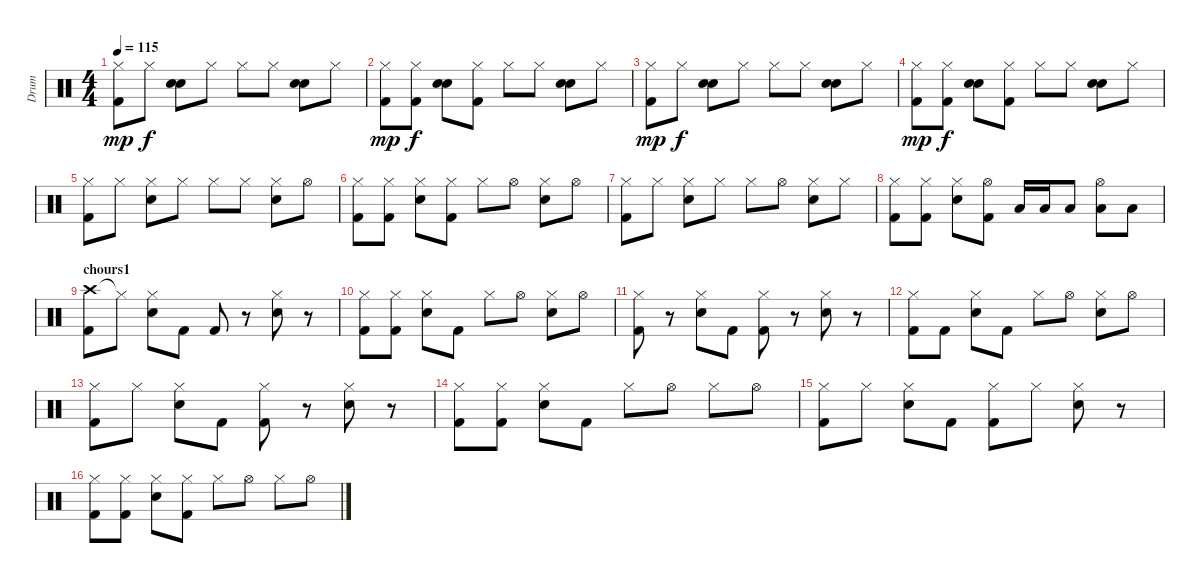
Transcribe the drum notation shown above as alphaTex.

\track ("Drum" "Drum") {instrument percussion}
\staff {score}
\articulation defaults
\ts (4 4)
\tempo 115
\clef neutral
\ks c
("Hi-Hat (closed)" "Kick (hit) 2").8{dy mp} "Hi-Hat (closed)".8{dy f} ("Electric Snare (hit)" "Electric Snare (hit)").8 "Hi-Hat (closed)".8 "Hi-Hat (closed)".8 "Hi-Hat (closed)".8 ("Electric Snare (hit)" "Electric Snare (hit)").8 "Hi-Hat (closed)".8 |
("Hi-Hat (closed)" "Kick (hit) 2").8{dy mp} ("Hi-Hat (closed)" "Kick (hit) 2").8{dy f} ("Electric Snare (hit)" "Electric Snare (hit)").8 ("Hi-Hat (closed)" "Kick (hit) 2").8 "Hi-Hat (closed)".8 "Hi-Hat (closed)".8 ("Electric Snare (hit)" "Electric Snare (hit)").8 "Hi-Hat (closed)".8 |
("Hi-Hat (closed)" "Kick (hit) 2").8{dy mp} "Hi-Hat (closed)".8{dy f} ("Electric Snare (hit)" "Electric Snare (hit)").8 "Hi-Hat (closed)".8 "Hi-Hat (closed)".8 "Hi-Hat (closed)".8 ("Electric Snare (hit)" "Electric Snare (hit)").8 "Hi-Hat (closed)".8 |
("Hi-Hat (closed)" "Kick (hit) 2").8{dy mp} ("Hi-Hat (closed)" "Kick (hit) 2").8{dy f} ("Electric Snare (hit)" "Electric Snare (hit)").8 ("Hi-Hat (closed)" "Kick (hit) 2").8 "Hi-Hat (closed)".8 "Hi-Hat (closed)".8 ("Electric Snare (hit)" "Electric Snare (hit)").8 "Hi-Hat (closed)".8 |
("Hi-Hat (closed)" "Kick (hit) 2").8 "Hi-Hat (closed)".8 ("Hi-Hat (closed)" "Electric Snare (hit)").8 "Hi-Hat (closed)".8 "Hi-Hat (closed)".8 "Hi-Hat (closed)".8 ("Hi-Hat (closed)" "Electric Snare (hit)").8 "Hi-Hat (open)".8 |
("Hi-Hat (closed)" "Kick (hit) 2").8 ("Hi-Hat (closed)" "Kick (hit) 2").8 ("Hi-Hat (closed)" "Electric Snare (hit)").8 ("Hi-Hat (closed)" "Kick (hit) 2").8 "Hi-Hat (closed)".8 "Hi-Hat (open)".8 ("Hi-Hat (closed)" "Electric Snare (hit)").8 "Hi-Hat (open)".8 |
("Hi-Hat (closed)" "Kick (hit) 2").8 "Hi-Hat (closed)".8 ("Hi-Hat (closed)" "Electric Snare (hit)").8 "Hi-Hat (closed)".8 "Hi-Hat (closed)".8 "Hi-Hat (open)".8 ("Hi-Hat (closed)" "Electric Snare (hit)").8 "Hi-Hat (closed)".8 |
("Hi-Hat (closed)" "Kick (hit) 2").8 ("Hi-Hat (closed)" "Kick (hit) 2").8 ("Hi-Hat (closed)" "Electric Snare (hit)").8 ("Hi-Hat (open)" "Kick (hit) 2").8 "Low Tom (hit)".16 "Low Tom (hit)".16 "Low Tom (hit)".8 ("Hi-Hat (open)" "Low Tom (hit)").8 "Low Tom (hit)".8 |
\section ("" "chours1")
("Crash high (hit)" "Kick (hit) 2").8 "Hi-Hat (closed)"{t}.8 ("Hi-Hat (closed)" "Electric Snare (hit)").8 "Kick (hit) 2".8 "Kick (hit) 2".8 r.8 ("Hi-Hat (closed)" "Electric Snare (hit)").8 r.8 |
("Hi-Hat (closed)" "Kick (hit) 2").8 ("Hi-Hat (closed)" "Kick (hit) 2").8 ("Hi-Hat (closed)" "Electric Snare (hit)").8 "Kick (hit) 2".8 "Hi-Hat (closed)".8 "Hi-Hat (open)".8 ("Hi-Hat (closed)" "Electric Snare (hit)").8 "Hi-Hat (open)".8 |
("Hi-Hat (closed)" "Kick (hit) 2").8 r.8 ("Hi-Hat (closed)" "Electric Snare (hit)").8 "Kick (hit) 2".8 ("Hi-Hat (closed)" "Kick (hit) 2").8 r.8 ("Hi-Hat (closed)" "Electric Snare (hit)").8 r.8 |
("Hi-Hat (closed)" "Kick (hit) 2").8 "Kick (hit) 2".8 ("Hi-Hat (closed)" "Electric Snare (hit)").8 "Kick (hit) 2".8 "Hi-Hat (closed)".8 "Hi-Hat (open)".8 ("Hi-Hat (closed)" "Electric Snare (hit)").8 "Hi-Hat (open)".8 |
("Hi-Hat (closed)" "Kick (hit) 2").8 "Hi-Hat (closed)".8 ("Hi-Hat (closed)" "Electric Snare (hit)").8 "Kick (hit) 2".8 ("Hi-Hat (closed)" "Kick (hit) 2").8 r.8 ("Hi-Hat (closed)" "Electric Snare (hit)").8 r.8 |
("Hi-Hat (closed)" "Kick (hit) 2").8 ("Hi-Hat (closed)" "Kick (hit) 2").8 ("Hi-Hat (closed)" "Electric Snare (hit)").8 "Kick (hit) 2".8 "Hi-Hat (closed)".8 "Hi-Hat (open)".8 "Hi-Hat (closed)".8 "Hi-Hat (open)".8 |
("Hi-Hat (closed)" "Kick (hit) 2").8 "Hi-Hat (closed)".8 ("Hi-Hat (closed)" "Electric Snare (hit)").8 "Kick (hit) 2".8 ("Hi-Hat (closed)" "Kick (hit) 2").8 "Hi-Hat (closed)".8 ("Hi-Hat (closed)" "Electric Snare (hit)").8 r.8 |
("Hi-Hat (closed)" "Kick (hit) 2").8 ("Hi-Hat (closed)" "Kick (hit) 2").8 ("Hi-Hat (closed)" "Electric Snare (hit)").8 ("Hi-Hat (closed)" "Kick (hit) 2").8 "Hi-Hat (closed)".8 "Hi-Hat (open)".8 "Hi-Hat (closed)".8 "Hi-Hat (open)".8
